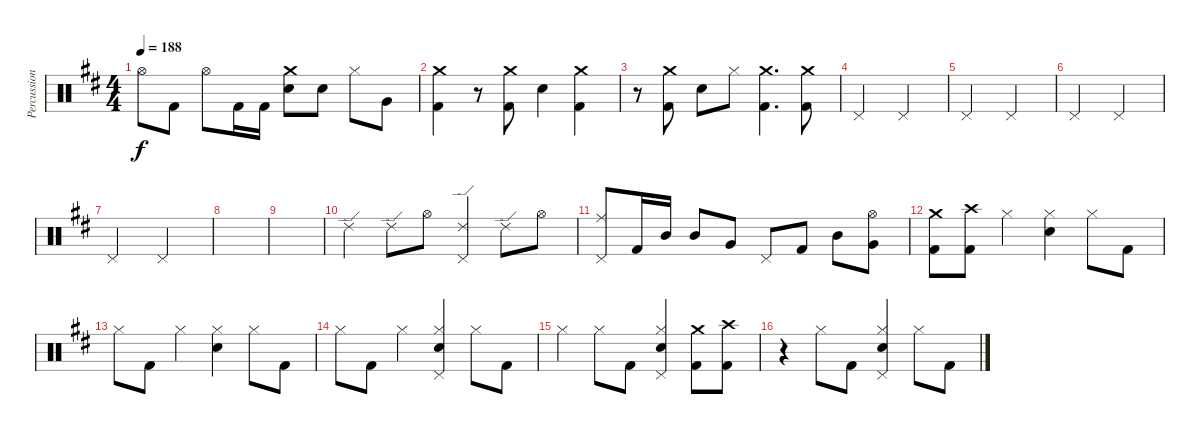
\track ("Percussion" "Percussion") {instrument percussion}
\staff {score}
\articulation defaults
\ts (4 4)
\tempo 188
\clef neutral
\ks bminor "Hi-Hat (open)".8{dy f} "Kick (hit) 2".8 "Hi-Hat (open)".8 "Kick (hit) 2".16 "Kick (hit) 2".16
("Crash medium (hit)" "Electric Snare (hit)").8 "Electric Snare (hit)".8 "Hi-Hat (closed)".8 "Very Low Tom (hit)".8 |
("Kick (hit) 2" "Crash medium (hit)").4 r.8 ("Kick (hit) 2" "Crash medium (hit)").8 "Electric Snare (hit)".4 ("Kick (hit) 2" "Crash medium (hit)").4 |
r.8 ("Kick (hit) 2" "Crash medium (hit)").8 "Electric Snare (hit)".8 "Hi-Hat (closed)".8 ("Kick (hit) 2" "Crash medium (hit)").4{d} ("Kick (hit) 2" "Crash medium (hit)").8 |
"Pedal Hi-Hat (hit)".2 "Pedal Hi-Hat (hit)".2 |
"Pedal Hi-Hat (hit)".2 "Pedal Hi-Hat (hit)".2 |
"Pedal Hi-Hat (hit)".2 "Pedal Hi-Hat (hit)".2 |
"Pedal Hi-Hat (hit)".2 "Pedal Hi-Hat (hit)".2 |
|
|
"Ride (edge) 2".4 "Ride (edge) 2".8 "Hi-Hat (open)".8 ("Pedal Hi-Hat (hit)" "Ride (edge) 2").4 "Ride (edge) 2".8 "Hi-Hat (open)".8 |
("Pedal Hi-Hat (hit)" "Ride (middle)").8 "Kick (hit) 2".16 "Mid Tom (hit)".16 "Mid Tom (hit)".8 "Very Low Tom (hit)".8 "Pedal Hi-Hat (hit)".8 "Kick (hit) 2".8 "Mid Tom (hit)".8 ("Very Low Tom (hit)" "Hi-Hat (open)").8 |
("Crash medium (hit)" "Kick (hit) 2").8 ("Kick (hit) 2" "Crash high (hit)").8 "Hi-Hat (closed)".4 ("Electric Snare (hit)" "Hi-Hat (closed)").4 "Hi-Hat (closed)".8 "Kick (hit) 2".8 |
"Hi-Hat (closed)".8 "Kick (hit) 2".8 "Hi-Hat (closed)".4 ("Electric Snare (hit)" "Hi-Hat (closed)").4 "Hi-Hat (closed)".8 "Kick (hit) 2".8 |
"Hi-Hat (closed)".8 "Kick (hit) 2".8 "Hi-Hat (closed)".4 ("Electric Snare (hit)" "Pedal Hi-Hat (hit)" "Hi-Hat (closed)").4 "Hi-Hat (closed)".8 "Kick (hit) 2".8 |
"Hi-Hat (closed)".4 "Hi-Hat (closed)".8 "Kick (hit) 2".8 ("Pedal Hi-Hat (hit)" "Electric Snare (hit)" "Hi-Hat (closed)").4 ("Kick (hit) 2" "Crash medium (hit)").8 ("Crash high (hit)" "Kick (hit) 2").8 |
r.4 "Hi-Hat (closed)".8 "Kick (hit) 2".8 ("Pedal Hi-Hat (hit)" "Electric Snare (hit)" "Hi-Hat (closed)").4 "Hi-Hat (closed)".8 "Kick (hit) 2".8
